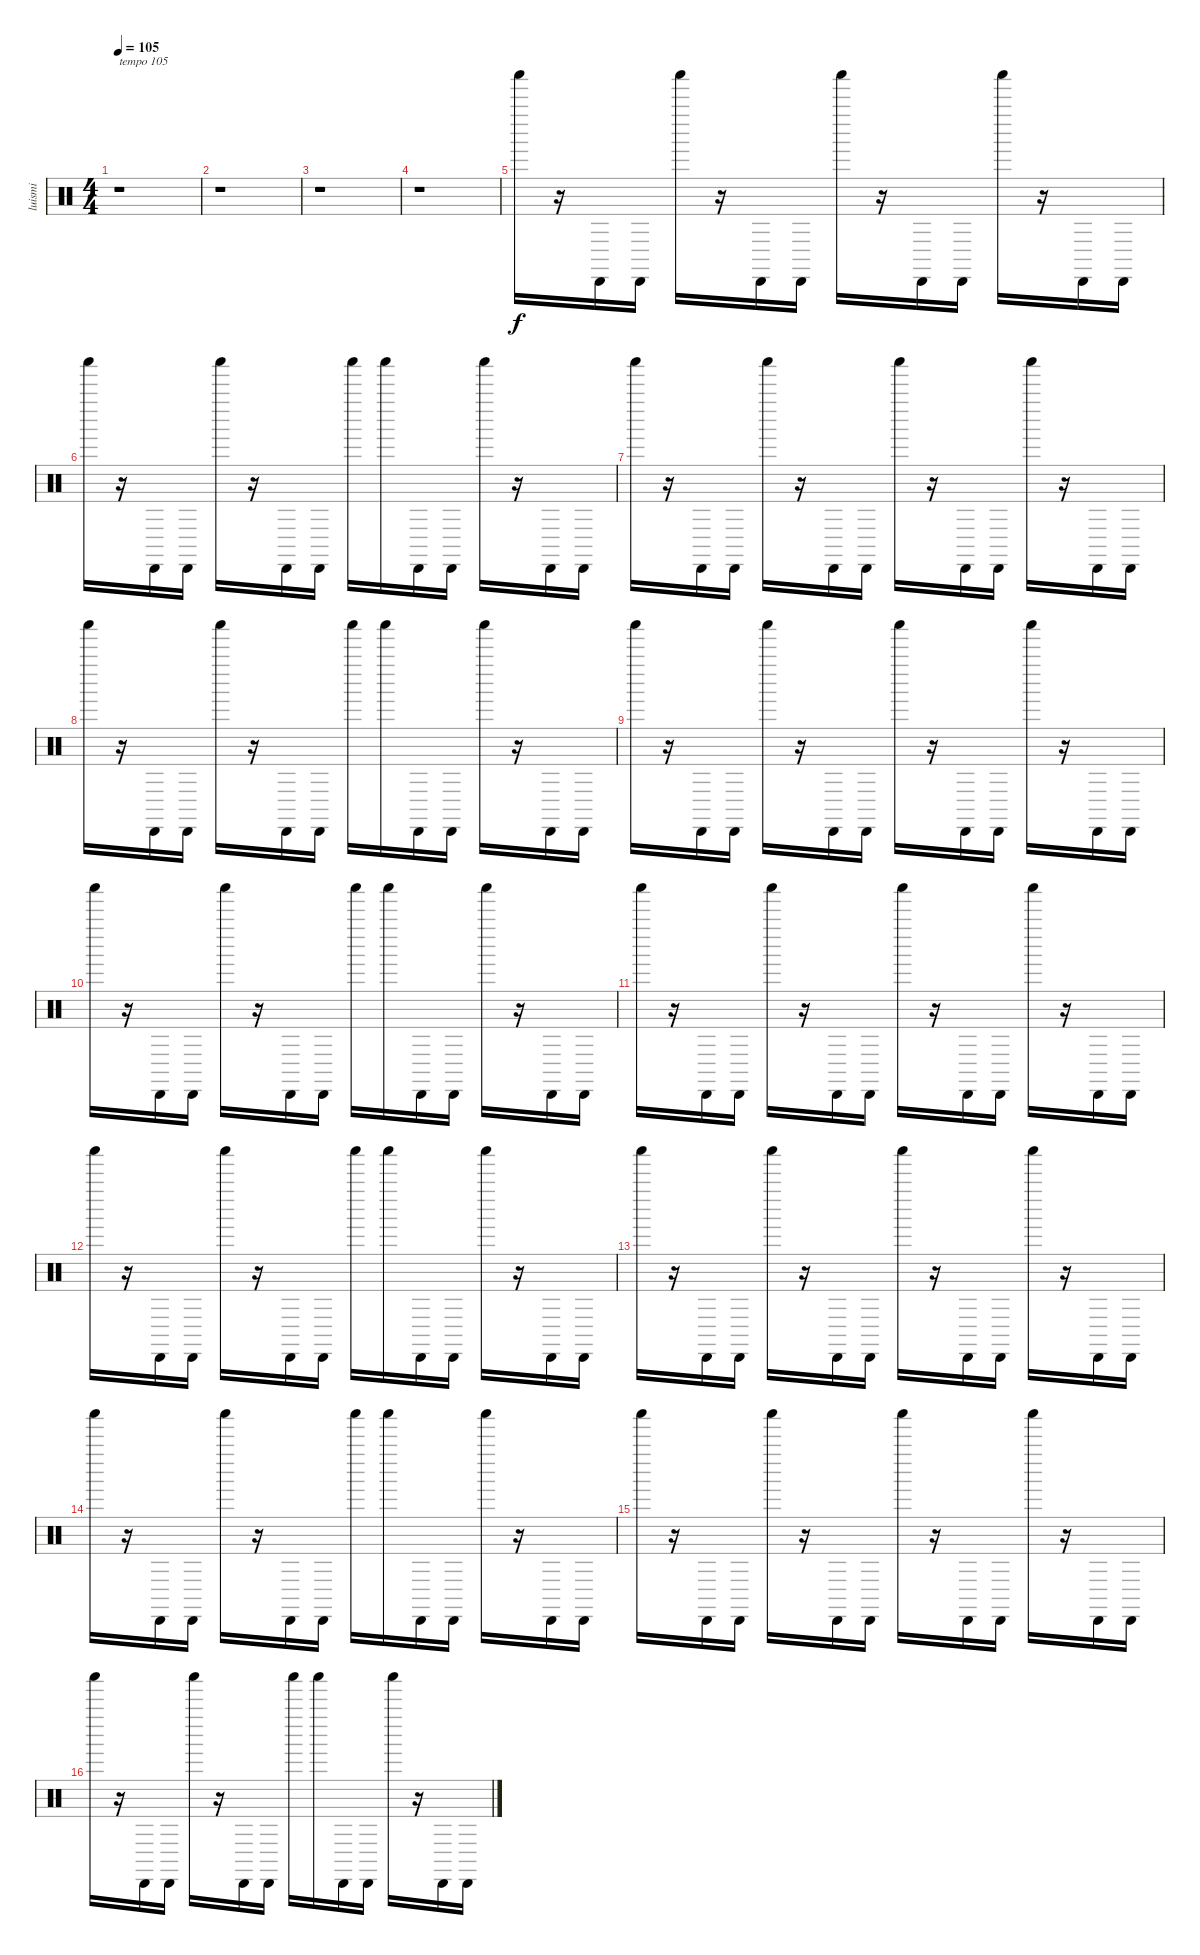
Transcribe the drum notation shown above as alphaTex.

\track ("luismi" "luismi") {instrument percussion}
\staff {score}
\articulation defaults
\ts (4 4)
\tempo 105
\clef neutral
\ks c
r.1{txt "tempo 105" dy f} |
r.1 |
r.1 |
r.1 |
"Shaker (hit)".16 r.16 "Cabasa (hit)".16 "Cabasa (hit)".16 "Shaker (hit)".16 r.16 "Cabasa (hit)".16 "Cabasa (hit)".16 "Shaker (hit)".16 r.16 "Cabasa (hit)".16 "Cabasa (hit)".16 "Shaker (hit)".16 r.16 "Cabasa (hit)".16 "Cabasa (hit)".16 |
"Shaker (hit)".16 r.16 "Cabasa (hit)".16 "Cabasa (hit)".16 "Shaker (hit)".16 r.16 "Cabasa (hit)".16 "Cabasa (hit)".16 "Shaker (hit)".16 "Shaker (hit)".16 "Cabasa (hit)".16 "Cabasa (hit)".16 "Shaker (hit)".16 r.16 "Cabasa (hit)".16 "Cabasa (hit)".16 |
"Shaker (hit)".16 r.16 "Cabasa (hit)".16 "Cabasa (hit)".16 "Shaker (hit)".16 r.16 "Cabasa (hit)".16 "Cabasa (hit)".16 "Shaker (hit)".16 r.16 "Cabasa (hit)".16 "Cabasa (hit)".16 "Shaker (hit)".16 r.16 "Cabasa (hit)".16 "Cabasa (hit)".16 |
"Shaker (hit)".16 r.16 "Cabasa (hit)".16 "Cabasa (hit)".16 "Shaker (hit)".16 r.16 "Cabasa (hit)".16 "Cabasa (hit)".16 "Shaker (hit)".16 "Shaker (hit)".16 "Cabasa (hit)".16 "Cabasa (hit)".16 "Shaker (hit)".16 r.16 "Cabasa (hit)".16 "Cabasa (hit)".16 |
"Shaker (hit)".16 r.16 "Cabasa (hit)".16 "Cabasa (hit)".16 "Shaker (hit)".16 r.16 "Cabasa (hit)".16 "Cabasa (hit)".16 "Shaker (hit)".16 r.16 "Cabasa (hit)".16 "Cabasa (hit)".16 "Shaker (hit)".16 r.16 "Cabasa (hit)".16 "Cabasa (hit)".16 |
"Shaker (hit)".16 r.16 "Cabasa (hit)".16 "Cabasa (hit)".16 "Shaker (hit)".16 r.16 "Cabasa (hit)".16 "Cabasa (hit)".16 "Shaker (hit)".16 "Shaker (hit)".16 "Cabasa (hit)".16 "Cabasa (hit)".16 "Shaker (hit)".16 r.16 "Cabasa (hit)".16 "Cabasa (hit)".16 |
"Shaker (hit)".16 r.16 "Cabasa (hit)".16 "Cabasa (hit)".16 "Shaker (hit)".16 r.16 "Cabasa (hit)".16 "Cabasa (hit)".16 "Shaker (hit)".16 r.16 "Cabasa (hit)".16 "Cabasa (hit)".16 "Shaker (hit)".16 r.16 "Cabasa (hit)".16 "Cabasa (hit)".16 |
"Shaker (hit)".16 r.16 "Cabasa (hit)".16 "Cabasa (hit)".16 "Shaker (hit)".16 r.16 "Cabasa (hit)".16 "Cabasa (hit)".16 "Shaker (hit)".16 "Shaker (hit)".16 "Cabasa (hit)".16 "Cabasa (hit)".16 "Shaker (hit)".16 r.16 "Cabasa (hit)".16 "Cabasa (hit)".16 |
"Shaker (hit)".16 r.16 "Cabasa (hit)".16 "Cabasa (hit)".16 "Shaker (hit)".16 r.16 "Cabasa (hit)".16 "Cabasa (hit)".16 "Shaker (hit)".16 r.16 "Cabasa (hit)".16 "Cabasa (hit)".16 "Shaker (hit)".16 r.16 "Cabasa (hit)".16 "Cabasa (hit)".16 |
"Shaker (hit)".16 r.16 "Cabasa (hit)".16 "Cabasa (hit)".16 "Shaker (hit)".16 r.16 "Cabasa (hit)".16 "Cabasa (hit)".16 "Shaker (hit)".16 "Shaker (hit)".16 "Cabasa (hit)".16 "Cabasa (hit)".16 "Shaker (hit)".16 r.16 "Cabasa (hit)".16 "Cabasa (hit)".16 |
"Shaker (hit)".16 r.16 "Cabasa (hit)".16 "Cabasa (hit)".16 "Shaker (hit)".16 r.16 "Cabasa (hit)".16 "Cabasa (hit)".16 "Shaker (hit)".16 r.16 "Cabasa (hit)".16 "Cabasa (hit)".16 "Shaker (hit)".16 r.16 "Cabasa (hit)".16 "Cabasa (hit)".16 |
"Shaker (hit)".16 r.16 "Cabasa (hit)".16 "Cabasa (hit)".16 "Shaker (hit)".16 r.16 "Cabasa (hit)".16 "Cabasa (hit)".16 "Shaker (hit)".16 "Shaker (hit)".16 "Cabasa (hit)".16 "Cabasa (hit)".16 "Shaker (hit)".16 r.16 "Cabasa (hit)".16 "Cabasa (hit)".16
